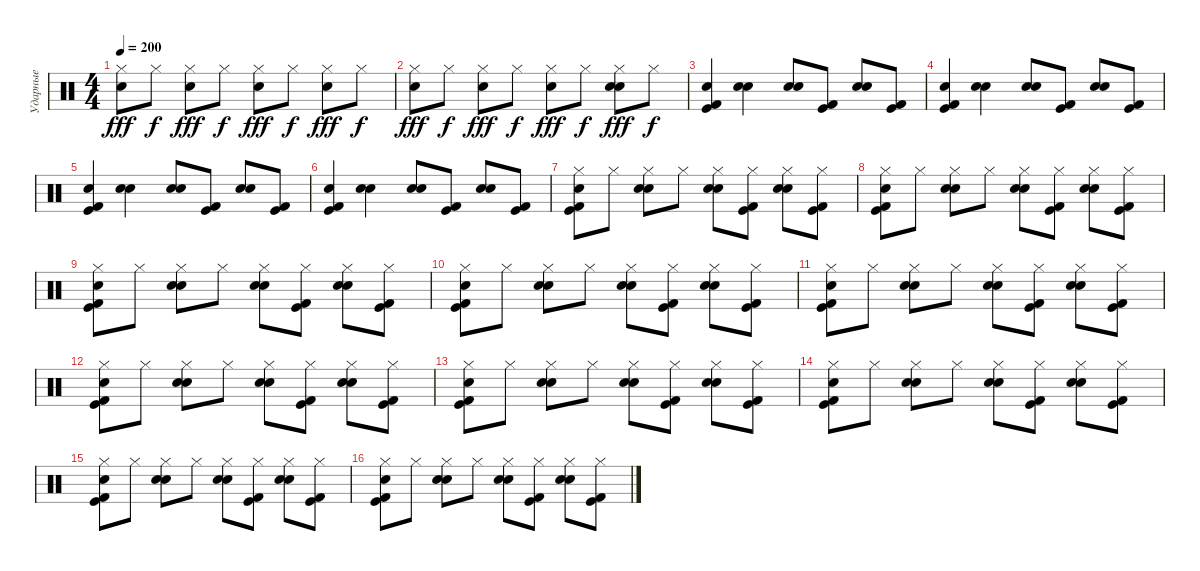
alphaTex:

\track ("Ударные" "Ударные") {instrument percussion}
\staff {score}
\articulation defaults
\ts (4 4)
\tempo 200
\clef neutral
\ks c
("Hi-Hat (closed)" "Hand Clap (hit)").8{dy fff} "Hi-Hat (closed)".8{dy f} ("Hi-Hat (closed)" "Hand Clap (hit)").8{dy fff} "Hi-Hat (closed)".8{dy f} ("Hi-Hat (closed)" "Hand Clap (hit)").8{dy fff} "Hi-Hat (closed)".8{dy f} ("Hi-Hat (closed)" "Hand Clap (hit)").8{dy fff} "Hi-Hat (closed)".8{dy f} |
("Hi-Hat (closed)" "Hand Clap (hit)").8{dy fff} "Hi-Hat (closed)".8{dy f} ("Hi-Hat (closed)" "Hand Clap (hit)").8{dy fff} "Hi-Hat (closed)".8{dy f} ("Hi-Hat (closed)" "Hand Clap (hit)").8{dy fff} "Hi-Hat (closed)".8{dy f} ("Hi-Hat (closed)" "Electric Snare (hit)" "Hand Clap (hit)").8{dy fff} "Hi-Hat (closed)".8{dy f} |
("Hand Clap (hit)" "Kick (hit) 2" "Kick (hit)").4 ("Hand Clap (hit)" "Electric Snare (hit)").4 ("Hand Clap (hit)" "Electric Snare (hit)").8 ("Kick (hit) 2" "Kick (hit)").8 ("Hand Clap (hit)" "Electric Snare (hit)").8 ("Kick (hit) 2" "Kick (hit)").8 |
("Hand Clap (hit)" "Kick (hit) 2" "Kick (hit)").4 ("Hand Clap (hit)" "Electric Snare (hit)").4 ("Hand Clap (hit)" "Electric Snare (hit)").8 ("Kick (hit) 2" "Kick (hit)").8 ("Hand Clap (hit)" "Electric Snare (hit)").8 ("Kick (hit) 2" "Kick (hit)").8 |
("Hand Clap (hit)" "Kick (hit) 2" "Kick (hit)").4 ("Hand Clap (hit)" "Electric Snare (hit)").4 ("Hand Clap (hit)" "Electric Snare (hit)").8 ("Kick (hit) 2" "Kick (hit)").8 ("Hand Clap (hit)" "Electric Snare (hit)").8 ("Kick (hit) 2" "Kick (hit)").8 |
("Hand Clap (hit)" "Kick (hit) 2" "Kick (hit)").4 ("Hand Clap (hit)" "Electric Snare (hit)").4 ("Hand Clap (hit)" "Electric Snare (hit)").8 ("Kick (hit) 2" "Kick (hit)").8 ("Hand Clap (hit)" "Electric Snare (hit)").8 ("Kick (hit) 2" "Kick (hit)").8 |
("Hi-Hat (closed)" "Hand Clap (hit)" "Kick (hit) 2" "Kick (hit)").8 "Hi-Hat (closed)".8 ("Hi-Hat (closed)" "Hand Clap (hit)" "Electric Snare (hit)").8 "Hi-Hat (closed)".8 ("Hi-Hat (closed)" "Hand Clap (hit)" "Electric Snare (hit)").8 ("Hi-Hat (closed)" "Kick (hit) 2" "Kick (hit)").8 ("Hi-Hat (closed)" "Hand Clap (hit)" "Electric Snare (hit)").8 ("Hi-Hat (closed)" "Kick (hit) 2" "Kick (hit)").8 |
("Hi-Hat (closed)" "Hand Clap (hit)" "Kick (hit) 2" "Kick (hit)").8 "Hi-Hat (closed)".8 ("Hi-Hat (closed)" "Hand Clap (hit)" "Electric Snare (hit)").8 "Hi-Hat (closed)".8 ("Hi-Hat (closed)" "Hand Clap (hit)" "Electric Snare (hit)").8 ("Hi-Hat (closed)" "Kick (hit) 2" "Kick (hit)").8 ("Hi-Hat (closed)" "Hand Clap (hit)" "Electric Snare (hit)").8 ("Hi-Hat (closed)" "Kick (hit) 2" "Kick (hit)").8 |
("Hi-Hat (closed)" "Hand Clap (hit)" "Kick (hit) 2" "Kick (hit)").8 "Hi-Hat (closed)".8 ("Hi-Hat (closed)" "Hand Clap (hit)" "Electric Snare (hit)").8 "Hi-Hat (closed)".8 ("Hi-Hat (closed)" "Hand Clap (hit)" "Electric Snare (hit)").8 ("Hi-Hat (closed)" "Kick (hit) 2" "Kick (hit)").8 ("Hi-Hat (closed)" "Hand Clap (hit)" "Electric Snare (hit)").8 ("Hi-Hat (closed)" "Kick (hit) 2" "Kick (hit)").8 |
("Hi-Hat (closed)" "Hand Clap (hit)" "Kick (hit) 2" "Kick (hit)").8 "Hi-Hat (closed)".8 ("Hi-Hat (closed)" "Hand Clap (hit)" "Electric Snare (hit)").8 "Hi-Hat (closed)".8 ("Hi-Hat (closed)" "Hand Clap (hit)" "Electric Snare (hit)").8 ("Hi-Hat (closed)" "Kick (hit) 2" "Kick (hit)").8 ("Hi-Hat (closed)" "Hand Clap (hit)" "Electric Snare (hit)").8 ("Hi-Hat (closed)" "Kick (hit) 2" "Kick (hit)").8 |
("Hi-Hat (closed)" "Hand Clap (hit)" "Kick (hit) 2" "Kick (hit)").8 "Hi-Hat (closed)".8 ("Hi-Hat (closed)" "Hand Clap (hit)" "Electric Snare (hit)").8 "Hi-Hat (closed)".8 ("Hi-Hat (closed)" "Hand Clap (hit)" "Electric Snare (hit)").8 ("Hi-Hat (closed)" "Kick (hit) 2" "Kick (hit)").8 ("Hi-Hat (closed)" "Hand Clap (hit)" "Electric Snare (hit)").8 ("Hi-Hat (closed)" "Kick (hit) 2" "Kick (hit)").8 |
("Hi-Hat (closed)" "Hand Clap (hit)" "Kick (hit) 2" "Kick (hit)").8 "Hi-Hat (closed)".8 ("Hi-Hat (closed)" "Hand Clap (hit)" "Electric Snare (hit)").8 "Hi-Hat (closed)".8 ("Hi-Hat (closed)" "Hand Clap (hit)" "Electric Snare (hit)").8 ("Hi-Hat (closed)" "Kick (hit) 2" "Kick (hit)").8 ("Hi-Hat (closed)" "Hand Clap (hit)" "Electric Snare (hit)").8 ("Hi-Hat (closed)" "Kick (hit) 2" "Kick (hit)").8 |
("Hi-Hat (closed)" "Hand Clap (hit)" "Kick (hit) 2" "Kick (hit)").8 "Hi-Hat (closed)".8 ("Hi-Hat (closed)" "Hand Clap (hit)" "Electric Snare (hit)").8 "Hi-Hat (closed)".8 ("Hi-Hat (closed)" "Hand Clap (hit)" "Electric Snare (hit)").8 ("Hi-Hat (closed)" "Kick (hit) 2" "Kick (hit)").8 ("Hi-Hat (closed)" "Hand Clap (hit)" "Electric Snare (hit)").8 ("Hi-Hat (closed)" "Kick (hit) 2" "Kick (hit)").8 |
("Hi-Hat (closed)" "Hand Clap (hit)" "Kick (hit) 2" "Kick (hit)").8 "Hi-Hat (closed)".8 ("Hi-Hat (closed)" "Hand Clap (hit)" "Electric Snare (hit)").8 "Hi-Hat (closed)".8 ("Hi-Hat (closed)" "Hand Clap (hit)" "Electric Snare (hit)").8 ("Hi-Hat (closed)" "Kick (hit) 2" "Kick (hit)").8 ("Hi-Hat (closed)" "Hand Clap (hit)" "Electric Snare (hit)").8 ("Hi-Hat (closed)" "Kick (hit) 2" "Kick (hit)").8 |
("Hi-Hat (closed)" "Hand Clap (hit)" "Kick (hit) 2" "Kick (hit)").8 "Hi-Hat (closed)".8 ("Hi-Hat (closed)" "Hand Clap (hit)" "Electric Snare (hit)").8 "Hi-Hat (closed)".8 ("Hi-Hat (closed)" "Hand Clap (hit)" "Electric Snare (hit)").8 ("Hi-Hat (closed)" "Kick (hit) 2" "Kick (hit)").8 ("Hi-Hat (closed)" "Hand Clap (hit)" "Electric Snare (hit)").8 ("Hi-Hat (closed)" "Kick (hit) 2" "Kick (hit)").8 |
("Hi-Hat (closed)" "Hand Clap (hit)" "Kick (hit) 2" "Kick (hit)").8 "Hi-Hat (closed)".8 ("Hi-Hat (closed)" "Hand Clap (hit)" "Electric Snare (hit)").8 "Hi-Hat (closed)".8 ("Hi-Hat (closed)" "Hand Clap (hit)" "Electric Snare (hit)").8 ("Hi-Hat (closed)" "Kick (hit) 2" "Kick (hit)").8 ("Hi-Hat (closed)" "Hand Clap (hit)" "Electric Snare (hit)").8 ("Hi-Hat (closed)" "Kick (hit) 2" "Kick (hit)").8
